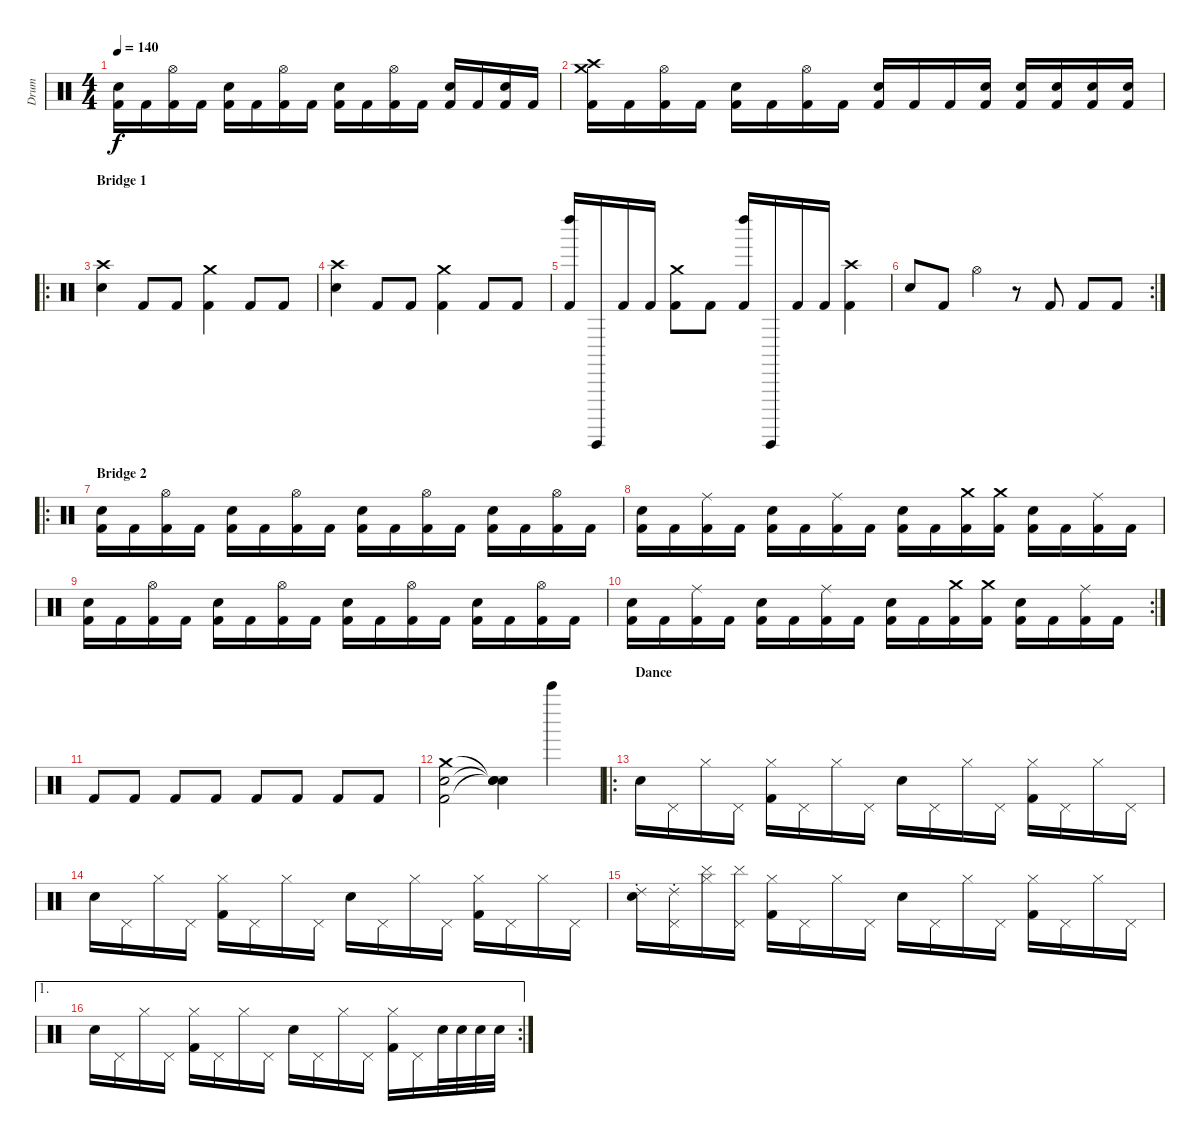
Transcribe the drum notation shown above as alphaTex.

\track ("Drum" "Drum") {instrument percussion}
\staff {score}
\articulation defaults
\ts (4 4)
\tempo 140
\clef neutral
\ks c
("Electric Snare (hit)" "Kick (hit) 2").16{dy f} "Kick (hit) 2".16 ("Hi-Hat (open)" "Kick (hit) 2").16 "Kick (hit) 2".16 ("Electric Snare (hit)" "Kick (hit) 2").16 "Kick (hit) 2".16 ("Hi-Hat (open)" "Kick (hit) 2").16 "Kick (hit) 2".16 ("Electric Snare (hit)" "Kick (hit) 2").16 "Kick (hit) 2".16 ("Hi-Hat (open)" "Kick (hit) 2").16 "Kick (hit) 2".16 ("Electric Snare (hit)" "Kick (hit) 2").16 "Kick (hit) 2".16 ("Electric Snare (hit)" "Kick (hit) 2").16 "Kick (hit) 2".16 |
("Crash medium (hit)" "Crash high (hit)" "Kick (hit) 2").16 "Kick (hit) 2".16 ("Hi-Hat (open)" "Kick (hit) 2").16 "Kick (hit) 2".16 ("Electric Snare (hit)" "Kick (hit) 2").16 "Kick (hit) 2".16 ("Hi-Hat (open)" "Kick (hit) 2").16 "Kick (hit) 2".16 ("Electric Snare (hit)" "Kick (hit) 2").16 "Kick (hit) 2".16 "Kick (hit) 2".16 ("Electric Snare (hit)" "Kick (hit) 2").16 ("Electric Snare (hit)" "Kick (hit) 2").16 ("Electric Snare (hit)" "Kick (hit) 2").16 ("Electric Snare (hit)" "Kick (hit) 2").16 ("Electric Snare (hit)" "Kick (hit) 2").16 |
\ro
\section ("" "Bridge 1")
("Crash high (hit)" "Electric Snare (hit)").4 "Kick (hit) 2".8 "Kick (hit) 2".8 ("Crash medium (hit)" "Kick (hit) 2").4 "Kick (hit) 2".8 "Kick (hit) 2".8 |
("Crash high (hit)" "Electric Snare (hit)").4 "Kick (hit) 2".8 "Kick (hit) 2".8 ("Crash medium (hit)" "Kick (hit) 2").4 "Kick (hit) 2".8 "Kick (hit) 2".8 |
("Left Maraca (hit)" "Kick (hit) 2").16 "Guiro (hit)".16 "Kick (hit) 2".16 "Kick (hit) 2".16 ("Crash medium (hit)" "Kick (hit) 2").8 "Kick (hit) 2".8 ("Left Maraca (hit)" "Kick (hit) 2").16 "Guiro (hit)".16 "Kick (hit) 2".16 "Kick (hit) 2".16 ("Crash high (hit)" "Kick (hit) 2").4 |
\rc 2 "Electric Snare (hit)".8 "Kick (hit) 2".8 "Hi-Hat (open)".4
r.8 "Kick (hit) 2".8 "Kick (hit) 2".8 "Kick (hit) 2".8 |
\ro
\section ("" "Bridge 2")
("Electric Snare (hit)" "Kick (hit) 2").16 "Kick (hit) 2".16 ("Hi-Hat (open)" "Kick (hit) 2").16 "Kick (hit) 2".16 ("Electric Snare (hit)" "Kick (hit) 2").16 "Kick (hit) 2".16 ("Hi-Hat (open)" "Kick (hit) 2").16 "Kick (hit) 2".16 ("Electric Snare (hit)" "Kick (hit) 2").16 "Kick (hit) 2".16 ("Hi-Hat (open)" "Kick (hit) 2").16 "Kick (hit) 2".16 ("Electric Snare (hit)" "Kick (hit) 2").16 "Kick (hit) 2".16 ("Hi-Hat (open)" "Kick (hit) 2").16 "Kick (hit) 2".16 |
("Electric Snare (hit)" "Kick (hit) 2").16 "Kick (hit) 2".16 ("Ride (middle)" "Kick (hit) 2").16 "Kick (hit) 2".16 ("Electric Snare (hit)" "Kick (hit) 2").16 "Kick (hit) 2".16 ("Ride (middle)" "Kick (hit) 2").16 "Kick (hit) 2".16 ("Electric Snare (hit)" "Kick (hit) 2").16 "Kick (hit) 2".16 ("Crash medium (hit)" "Kick (hit) 2").16 ("Crash medium (hit)" "Kick (hit) 2").16 ("Electric Snare (hit)" "Kick (hit) 2").16 "Kick (hit) 2".16 ("Ride (middle)" "Kick (hit) 2").16 "Kick (hit) 2".16 |
("Electric Snare (hit)" "Kick (hit) 2").16 "Kick (hit) 2".16 ("Hi-Hat (open)" "Kick (hit) 2").16 "Kick (hit) 2".16 ("Electric Snare (hit)" "Kick (hit) 2").16 "Kick (hit) 2".16 ("Hi-Hat (open)" "Kick (hit) 2").16 "Kick (hit) 2".16 ("Electric Snare (hit)" "Kick (hit) 2").16 "Kick (hit) 2".16 ("Hi-Hat (open)" "Kick (hit) 2").16 "Kick (hit) 2".16 ("Electric Snare (hit)" "Kick (hit) 2").16 "Kick (hit) 2".16 ("Hi-Hat (open)" "Kick (hit) 2").16 "Kick (hit) 2".16 |
\rc 2
("Electric Snare (hit)" "Kick (hit) 2").16 "Kick (hit) 2".16 ("Ride (middle)" "Kick (hit) 2").16 "Kick (hit) 2".16 ("Electric Snare (hit)" "Kick (hit) 2").16 "Kick (hit) 2".16 ("Ride (middle)" "Kick (hit) 2").16 "Kick (hit) 2".16 ("Electric Snare (hit)" "Kick (hit) 2").16 "Kick (hit) 2".16 ("Crash medium (hit)" "Kick (hit) 2").16 ("Crash medium (hit)" "Kick (hit) 2").16 ("Electric Snare (hit)" "Kick (hit) 2").16 "Kick (hit) 2".16 ("Ride (middle)" "Kick (hit) 2").16 "Kick (hit) 2".16 |
"Kick (hit) 2".8 "Kick (hit) 2".8 "Kick (hit) 2".8 "Kick (hit) 2".8 "Kick (hit) 2".8 "Kick (hit) 2".8 "Kick (hit) 2".8 "Kick (hit) 2".8 |
("Crash medium (hit)" "Electric Snare (hit)" "Kick (hit) 2").2 ("Snare (hit)"{t} "Snare (hit)"{t} "Snare (hit)"{t}).4 "Bell Tree (hit)".4 |
\ro
\section ("" "Dance")
"Electric Snare (hit)".16 "Pedal Hi-Hat (hit)".16 "Hi-Hat (closed)".16 "Pedal Hi-Hat (hit)".16 ("Hi-Hat (closed)" "Kick (hit) 2").16 "Pedal Hi-Hat (hit)".16 "Hi-Hat (closed)".16 "Pedal Hi-Hat (hit)".16 "Electric Snare (hit)".16 "Pedal Hi-Hat (hit)".16 "Hi-Hat (closed)".16 "Pedal Hi-Hat (hit)".16 ("Hi-Hat (closed)" "Kick (hit) 2").16 "Pedal Hi-Hat (hit)".16 "Hi-Hat (closed)".16 "Pedal Hi-Hat (hit)".16 |
"Electric Snare (hit)".16 "Pedal Hi-Hat (hit)".16 "Hi-Hat (closed)".16 "Pedal Hi-Hat (hit)".16 ("Hi-Hat (closed)" "Kick (hit) 2").16 "Pedal Hi-Hat (hit)".16 "Hi-Hat (closed)".16 "Pedal Hi-Hat (hit)".16 "Electric Snare (hit)".16 "Pedal Hi-Hat (hit)".16 "Hi-Hat (closed)".16 "Pedal Hi-Hat (hit)".16 ("Hi-Hat (closed)" "Kick (hit) 2").16 "Pedal Hi-Hat (hit)".16 "Hi-Hat (closed)".16 "Pedal Hi-Hat (hit)".16 |
("Ride (choke) 2" "Electric Snare (hit)").16 ("Ride (choke) 2" "Pedal Hi-Hat (hit)").16 ("Cymbal (hit)" "Hi-Hat (closed)").16 ("Cymbal (hit)" "Pedal Hi-Hat (hit)").16 ("Hi-Hat (closed)" "Kick (hit) 2").16 "Pedal Hi-Hat (hit)".16 "Hi-Hat (closed)".16 "Pedal Hi-Hat (hit)".16 "Electric Snare (hit)".16 "Pedal Hi-Hat (hit)".16 "Hi-Hat (closed)".16 "Pedal Hi-Hat (hit)".16 ("Hi-Hat (closed)" "Kick (hit) 2").16 "Pedal Hi-Hat (hit)".16 "Hi-Hat (closed)".16 "Pedal Hi-Hat (hit)".16 |
\ae 1
\rc 2 "Electric Snare (hit)".16 "Pedal Hi-Hat (hit)".16 "Hi-Hat (closed)".16 "Pedal Hi-Hat (hit)".16
("Hi-Hat (closed)" "Kick (hit) 2").16 "Pedal Hi-Hat (hit)".16 "Hi-Hat (closed)".16 "Pedal Hi-Hat (hit)".16 "Electric Snare (hit)".16 "Pedal Hi-Hat (hit)".16 "Hi-Hat (closed)".16 "Pedal Hi-Hat (hit)".16 ("Hi-Hat (closed)" "Kick (hit) 2").16 "Pedal Hi-Hat (hit)".16 "Electric Snare (hit)".32 "Electric Snare (hit)".32 "Electric Snare (hit)".32 "Electric Snare (hit)".32
